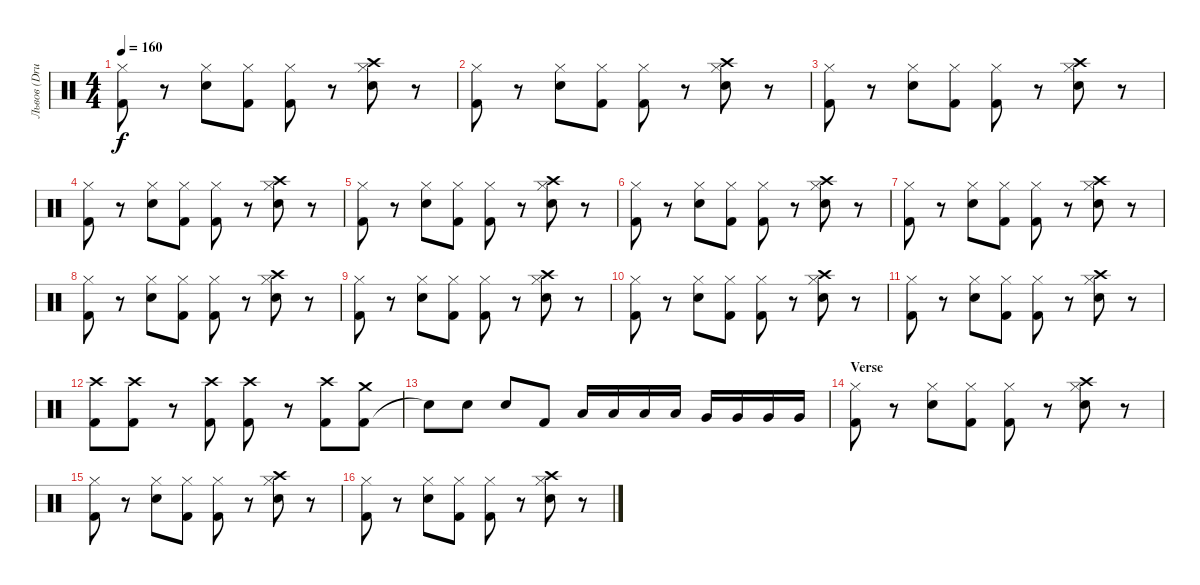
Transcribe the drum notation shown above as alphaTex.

\track ("Львов (Drums)" "Львов (Dru") {instrument percussion}
\staff {score}
\articulation defaults
\ts (4 4)
\tempo 160
\clef neutral
\ks c
("Kick (hit) 2" "Hi-Hat (closed)").8{dy f} r.8 ("Electric Snare (hit)" "Hi-Hat (closed)").8 ("Kick (hit) 2" "Hi-Hat (closed)").8 ("Kick (hit) 2" "Hi-Hat (closed)").8 r.8 ("Electric Snare (hit)" "Crash high (hit)" "Hi-Hat (closed)").8 r.8 |
("Kick (hit) 2" "Hi-Hat (closed)").8 r.8 ("Electric Snare (hit)" "Hi-Hat (closed)").8 ("Kick (hit) 2" "Hi-Hat (closed)").8 ("Kick (hit) 2" "Hi-Hat (closed)").8 r.8 ("Electric Snare (hit)" "Crash high (hit)" "Hi-Hat (closed)").8 r.8 |
("Kick (hit) 2" "Hi-Hat (closed)").8 r.8 ("Electric Snare (hit)" "Hi-Hat (closed)").8 ("Kick (hit) 2" "Hi-Hat (closed)").8 ("Kick (hit) 2" "Hi-Hat (closed)").8 r.8 ("Electric Snare (hit)" "Crash high (hit)" "Hi-Hat (closed)").8 r.8 |
("Kick (hit) 2" "Hi-Hat (closed)").8 r.8 ("Electric Snare (hit)" "Hi-Hat (closed)").8 ("Kick (hit) 2" "Hi-Hat (closed)").8 ("Kick (hit) 2" "Hi-Hat (closed)").8 r.8 ("Electric Snare (hit)" "Crash high (hit)" "Hi-Hat (closed)").8 r.8 |
("Kick (hit) 2" "Hi-Hat (closed)").8 r.8 ("Electric Snare (hit)" "Hi-Hat (closed)").8 ("Kick (hit) 2" "Hi-Hat (closed)").8 ("Kick (hit) 2" "Hi-Hat (closed)").8 r.8 ("Electric Snare (hit)" "Crash high (hit)" "Hi-Hat (closed)").8 r.8 |
("Kick (hit) 2" "Hi-Hat (closed)").8 r.8 ("Electric Snare (hit)" "Hi-Hat (closed)").8 ("Kick (hit) 2" "Hi-Hat (closed)").8 ("Kick (hit) 2" "Hi-Hat (closed)").8 r.8 ("Electric Snare (hit)" "Crash high (hit)" "Hi-Hat (closed)").8 r.8 |
("Kick (hit) 2" "Hi-Hat (closed)").8 r.8 ("Electric Snare (hit)" "Hi-Hat (closed)").8 ("Kick (hit) 2" "Hi-Hat (closed)").8 ("Kick (hit) 2" "Hi-Hat (closed)").8 r.8 ("Electric Snare (hit)" "Crash high (hit)" "Hi-Hat (closed)").8 r.8 |
("Kick (hit) 2" "Hi-Hat (closed)").8 r.8 ("Electric Snare (hit)" "Hi-Hat (closed)").8 ("Kick (hit) 2" "Hi-Hat (closed)").8 ("Kick (hit) 2" "Hi-Hat (closed)").8 r.8 ("Electric Snare (hit)" "Crash high (hit)" "Hi-Hat (closed)").8 r.8 |
("Kick (hit) 2" "Hi-Hat (closed)").8 r.8 ("Electric Snare (hit)" "Hi-Hat (closed)").8 ("Kick (hit) 2" "Hi-Hat (closed)").8 ("Kick (hit) 2" "Hi-Hat (closed)").8 r.8 ("Electric Snare (hit)" "Crash high (hit)" "Hi-Hat (closed)").8 r.8 |
("Kick (hit) 2" "Hi-Hat (closed)").8 r.8 ("Electric Snare (hit)" "Hi-Hat (closed)").8 ("Kick (hit) 2" "Hi-Hat (closed)").8 ("Kick (hit) 2" "Hi-Hat (closed)").8 r.8 ("Electric Snare (hit)" "Crash high (hit)" "Hi-Hat (closed)").8 r.8 |
("Kick (hit) 2" "Hi-Hat (closed)").8 r.8 ("Electric Snare (hit)" "Hi-Hat (closed)").8 ("Kick (hit) 2" "Hi-Hat (closed)").8 ("Kick (hit) 2" "Hi-Hat (closed)").8 r.8 ("Electric Snare (hit)" "Crash high (hit)" "Hi-Hat (closed)").8 r.8 |
("Kick (hit) 2" "Crash high (hit)").8 ("Kick (hit) 2" "Crash high (hit)").8 r.8 ("Kick (hit) 2" "Crash high (hit)").8 ("Kick (hit) 2" "Crash high (hit)").8 r.8 ("Kick (hit) 2" "Crash high (hit)").8 ("Kick (hit) 2" "Crash medium (hit)").8 |
"Snare (hit)"{t}.8 "Electric Snare (hit)".8 "Electric Snare (hit)".8 "Kick (hit) 2".8 "Low Tom (hit)".16 "Low Tom (hit)".16 "Low Tom (hit)".16 "Low Tom (hit)".16 "Very Low Tom (hit)".16 "Very Low Tom (hit)".16 "Very Low Tom (hit)".16 "Very Low Tom (hit)".16 |
\section ("" "Verse")
("Kick (hit) 2" "Hi-Hat (closed)").8 r.8 ("Electric Snare (hit)" "Hi-Hat (closed)").8 ("Kick (hit) 2" "Hi-Hat (closed)").8 ("Kick (hit) 2" "Hi-Hat (closed)").8 r.8 ("Electric Snare (hit)" "Crash high (hit)" "Hi-Hat (closed)").8 r.8 |
("Kick (hit) 2" "Hi-Hat (closed)").8 r.8 ("Electric Snare (hit)" "Hi-Hat (closed)").8 ("Kick (hit) 2" "Hi-Hat (closed)").8 ("Kick (hit) 2" "Hi-Hat (closed)").8 r.8 ("Electric Snare (hit)" "Crash high (hit)" "Hi-Hat (closed)").8 r.8 |
("Kick (hit) 2" "Hi-Hat (closed)").8 r.8 ("Electric Snare (hit)" "Hi-Hat (closed)").8 ("Kick (hit) 2" "Hi-Hat (closed)").8 ("Kick (hit) 2" "Hi-Hat (closed)").8 r.8 ("Electric Snare (hit)" "Crash high (hit)" "Hi-Hat (closed)").8 r.8
